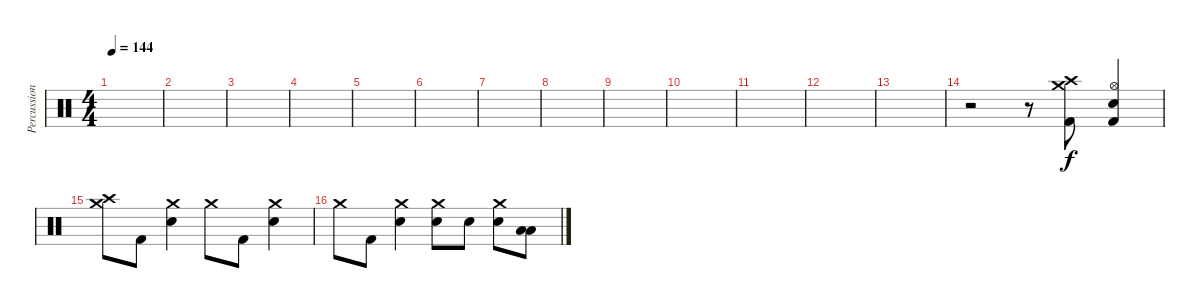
\track ("Percussion" "Percussion") {instrument percussion}
\staff {score}
\articulation defaults
\ts (4 4)
\tempo 144
\clef neutral
\ks c
|
|
|
|
|
|
|
|
|
|
|
|
|
r.2 r.8 ("Crash medium (hit)" "Crash high (hit)" "Kick (hit) 2").8 ("Hi-Hat (open)" "Electric Snare (hit)" "Kick (hit) 2").4 |
("Crash medium (hit)" "Crash high (hit)").8 "Kick (hit) 2".8 ("Crash medium (hit)" "Electric Snare (hit)").4 "Crash medium (hit)".8 "Kick (hit) 2".8 ("Crash medium (hit)" "Electric Snare (hit)").4 |
"Crash medium (hit)".8 "Kick (hit) 2".8 ("Crash medium (hit)" "Electric Snare (hit)").4 ("Crash medium (hit)" "Electric Snare (hit)").8 "Electric Snare (hit)".8 ("Crash medium (hit)" "Electric Snare (hit)").8 ("Low Tom (hit)" "Low Floor Tom (hit)").8
